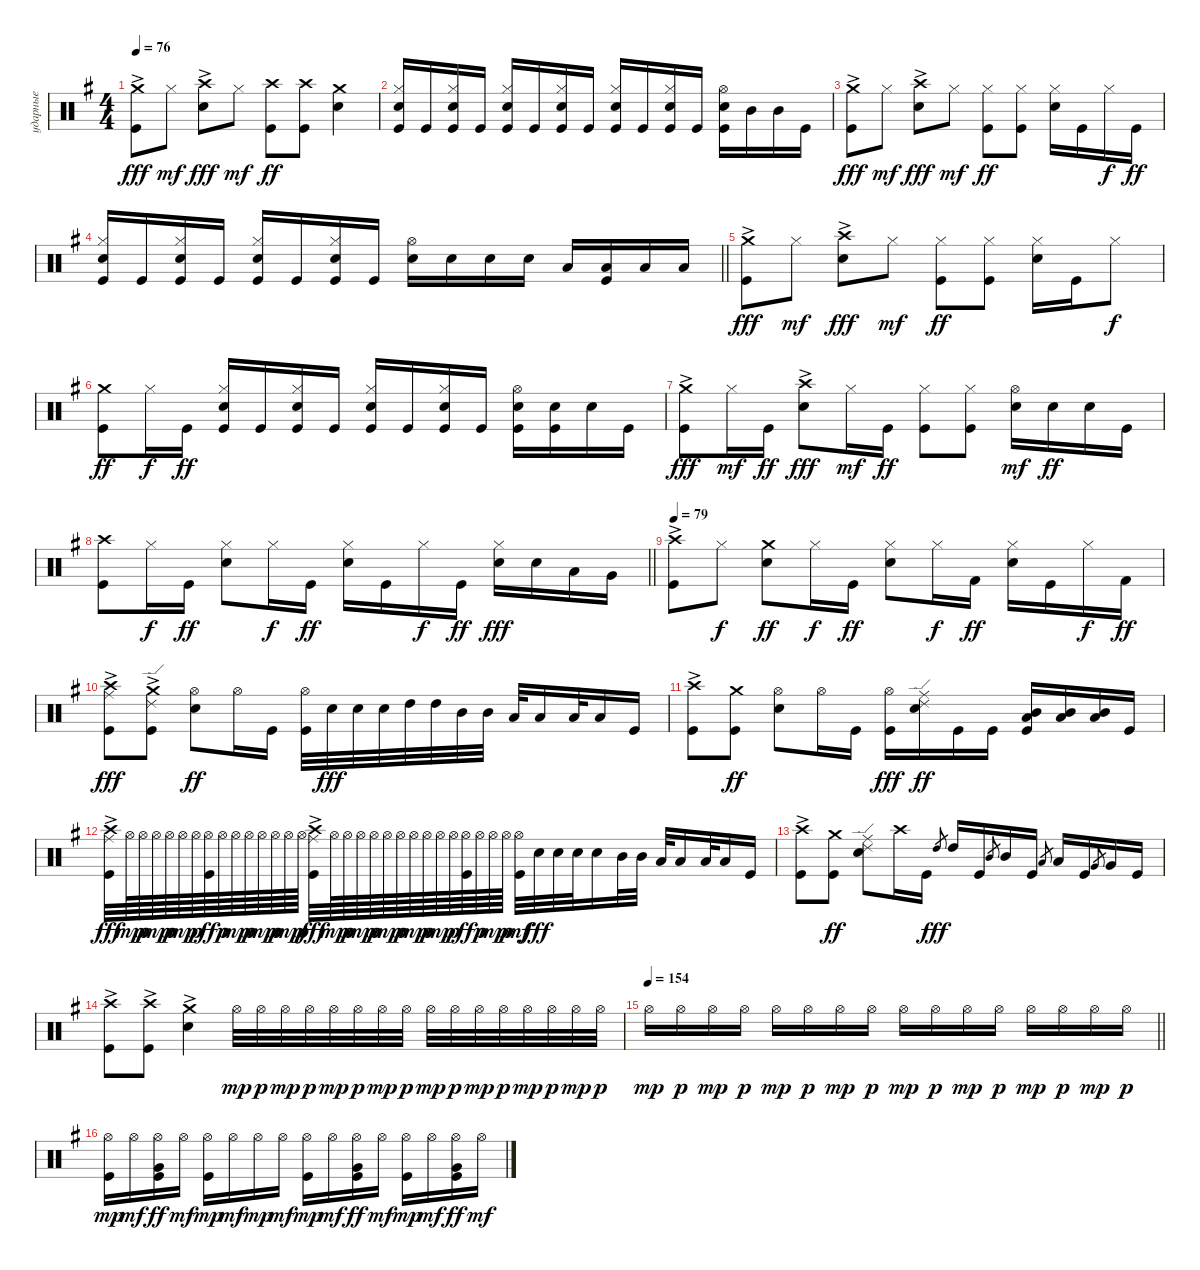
\track ("ударные" "ударные") {instrument percussion}
\staff {score}
\articulation defaults
\ts (4 4)
\tempo 76
\clef neutral
\ks eminor
("Kick (hit)" "Crash medium (hit)"{ac}).8{dy fff} "Hi-Hat (closed)".8{dy mf} ("Snare (hit) 2" "Crash high (hit)"{ac}).8{dy fff} "Hi-Hat (closed)".8{dy mf} ("Kick (hit)" "Crash high (hit)").8{dy ff} ("Kick (hit)" "Crash high (hit)").8 ("Snare (hit) 2" "Crash medium (hit)").4 |
("Snare (hit) 2" "Hi-Hat (closed)" "Kick (hit)").16 "Kick (hit)".16 ("Hi-Hat (closed)" "Kick (hit)" "Snare (hit) 2").16 "Kick (hit)".16 ("Snare (hit) 2" "Hi-Hat (closed)" "Kick (hit)").16 "Kick (hit)".16 ("Hi-Hat (closed)" "Kick (hit)" "Snare (hit) 2").16 "Kick (hit)".16 ("Snare (hit) 2" "Hi-Hat (closed)" "Kick (hit)").16 "Kick (hit)".16 ("Hi-Hat (closed)" "Kick (hit)" "Snare (hit) 2").16 "Kick (hit)".16 ("Snare (hit) 2" "Hi-Hat (open)" "Kick (hit)").16 "Mid Tom (hit)".16 "Mid Tom (hit)".16 "Kick (hit)".16 |
("Kick (hit)" "Crash medium (hit)"{ac}).8{dy fff} "Hi-Hat (closed)".8{dy mf} ("Snare (hit) 2" "Crash high (hit)"{ac}).8{dy fff} "Hi-Hat (closed)".8{dy mf} ("Kick (hit)" "Hi-Hat (closed)").8{dy ff} ("Kick (hit)" "Hi-Hat (closed)").8 ("Snare (hit) 2" "Hi-Hat (closed)").16 "Kick (hit)".16 "Hi-Hat (closed)".16{dy f} "Kick (hit)".16{dy ff} |
\barLineRight lightlight
("Snare (hit) 2" "Hi-Hat (closed)" "Kick (hit)").16 "Kick (hit)".16 ("Hi-Hat (closed)" "Kick (hit)" "Snare (hit) 2").16 "Kick (hit)".16 ("Snare (hit) 2" "Hi-Hat (closed)" "Kick (hit)").16 "Kick (hit)".16 ("Hi-Hat (closed)" "Kick (hit)" "Snare (hit) 2").16 "Kick (hit)".16 ("Hi-Hat (open)" "Snare (hit) 2").16 "Snare (hit) 2".16 "Snare (hit) 2".16 "Snare (hit) 2".16 "Low Tom (hit)".16 ("Kick (hit)" "Low Tom (hit)").16 "Low Tom (hit)".16 "Low Tom (hit)".16 |
\section ("" "")
("Kick (hit)" "Crash medium (hit)"{ac}).8{dy fff} "Hi-Hat (closed)".8{dy mf} ("Snare (hit) 2" "Crash high (hit)"{ac}).8{dy fff} "Hi-Hat (closed)".8{dy mf} ("Kick (hit)" "Hi-Hat (closed)").8{dy ff} ("Kick (hit)" "Hi-Hat (closed)").8 ("Snare (hit) 2" "Hi-Hat (closed)").16 "Kick (hit)".16 "Hi-Hat (closed)".8{dy f} |
("Kick (hit)" "Crash medium (hit)").8{dy ff} "Hi-Hat (closed)".16{dy f} "Kick (hit)".16{dy ff} ("Snare (hit) 2" "Hi-Hat (closed)" "Kick (hit)").16 "Kick (hit)".16 ("Hi-Hat (closed)" "Kick (hit)" "Snare (hit) 2").16 "Kick (hit)".16 ("Snare (hit) 2" "Hi-Hat (closed)" "Kick (hit)").16 "Kick (hit)".16 ("Hi-Hat (closed)" "Kick (hit)" "Snare (hit) 2").16 "Kick (hit)".16 ("Snare (hit) 2" "Hi-Hat (open)" "Kick (hit)").16 ("Snare (hit) 2" "Kick (hit)").16 "Snare (hit) 2".16 "Kick (hit)".16 |
("Kick (hit)" "Crash medium (hit)"{ac}).8{dy fff} "Hi-Hat (closed)".16{dy mf} "Kick (hit)".16{dy ff} ("Snare (hit) 2" "Crash high (hit)"{ac}).8{dy fff} "Hi-Hat (closed)".16{dy mf} "Kick (hit)".16{dy ff} ("Kick (hit)" "Hi-Hat (closed)").8 ("Kick (hit)" "Hi-Hat (closed)").8 ("Snare (hit) 2" "Hi-Hat (open)").16{dy mf} "Snare (hit) 2".16{dy ff} "Snare (hit) 2".16 "Kick (hit)".16 |
\barLineRight lightlight
("Kick (hit)" "Crash high (hit)").8 "Hi-Hat (closed)".16{dy f} "Kick (hit)".16{dy ff} ("Snare (hit) 2" "Hi-Hat (closed)").8 "Hi-Hat (closed)".16{dy f} "Kick (hit)".16{dy ff} ("Snare (hit) 2" "Hi-Hat (closed)").16 "Kick (hit)".16 "Hi-Hat (closed)".16{dy f} "Kick (hit)".16{dy ff} ("Snare (hit) 2" "Hi-Hat (closed)").16{dy fff} "Snare (hit) 2".16 "Low Tom (hit)".16 "Very Low Tom (hit)".16 |
\tempo 79
("Kick (hit)" "Crash high (hit)"{ac}).8 "Hi-Hat (closed)".8{dy f} ("Snare (hit) 2" "Crash medium (hit)").8{dy ff} "Hi-Hat (closed)".16{dy f} "Kick (hit)".16{dy ff} ("Snare (hit) 2" "Hi-Hat (closed)").8 "Hi-Hat (closed)".16{dy f} "Kick (hit) 2".16{dy ff} ("Snare (hit) 2" "Hi-Hat (closed)").16 "Kick (hit)".16 "Hi-Hat (closed)".16{dy f} "Kick (hit) 2".16{dy ff} |
("Kick (hit)"{ac} "Ride (middle)"{ac} "Crash high (hit)"{ac}).8{dy fff} ("Kick (hit)"{ac} "Crash medium (hit)"{ac} "Ride (edge) 2"{ac}).8 ("Snare (hit) 2" "Hi-Hat (open)").8{dy ff} "Hi-Hat (open)".16 "Kick (hit)".16 ("Kick (hit)" "Hi-Hat (open)").32 "Snare (hit) 2".32{dy fff} "Snare (hit) 2".32 "Snare (hit) 2".32 "High Tom (hit)".32 "High Tom (hit)".32 "Mid Tom (hit)".32 "Mid Tom (hit)".32 "Low Tom (hit)".32 "Low Tom (hit)".16 "Low Tom (hit)".32 "Low Tom (hit)".16 "Kick (hit)".16 |
("Kick (hit)" "Crash high (hit)"{ac}).8 ("Kick (hit)" "Crash medium (hit)").8{dy ff} ("Snare (hit) 2" "Hi-Hat (open)").8 "Hi-Hat (open)".16 "Kick (hit)".16 ("Kick (hit)" "Hi-Hat (open)").16{dy fff} ("Snare (hit) 2" "Ride (middle)" "Ride (edge) 2").16{dy ff} "Kick (hit)".16 "Kick (hit)".16 ("Mid Tom (hit)" "Low Tom (hit)" "Kick (hit)").16 ("Mid Tom (hit)" "Low Tom (hit)").16 ("Mid Tom (hit)" "Low Tom (hit)").16 "Kick (hit)".16 |
("Kick (hit)"{ac} "Ride (middle)"{ac} "Crash high (hit)"{ac}).32{dy fff} "Hi-Hat (open)".64{dy mp} "Hi-Hat (open)".64{dy p} "Hi-Hat (open)".64{dy mp} "Hi-Hat (open)".64{dy p} "Hi-Hat (open)".64{dy mp} "Hi-Hat (open)".64{dy p} ("Hi-Hat (open)" "Kick (hit)").64{dy ff} "Hi-Hat (open)".64{dy p} "Hi-Hat (open)".64{dy mp} "Hi-Hat (open)".64{dy p} "Hi-Hat (open)".64{dy mp} "Hi-Hat (open)".64{dy p} "Hi-Hat (open)".64{dy mp} "Hi-Hat (open)".64{dy p} ("Kick (hit)"{ac} "Ride (middle)"{ac} "Crash high (hit)"{ac}).32{dy fff} "Hi-Hat (open)".64{dy mp} "Hi-Hat (open)".64{dy p} "Hi-Hat (open)".64{dy mp} "Hi-Hat (open)".64{dy p} "Hi-Hat (open)".64{dy mp} "Hi-Hat (open)".64{dy p} "Hi-Hat (open)".64{dy mp} "Hi-Hat (open)".64{dy p} "Hi-Hat (open)".64{dy mp} "Hi-Hat (open)".64{dy p} ("Hi-Hat (open)" "Kick (hit)").64{dy ff} "Hi-Hat (open)".64{dy p} "Hi-Hat (open)".64{dy mp} "Hi-Hat (open)".64{dy p} ("Kick (hit)" "Hi-Hat (open)").32{dy mf} "Snare (hit) 2".32{dy fff} "Snare (hit) 2".32 "Snare (hit) 2".32 "Snare (hit) 2".16 "Mid Tom (hit)".32 "Mid Tom (hit)".32 "Low Tom (hit)".32 "Low Tom (hit)".16 "Low Tom (hit)".32 "Low Tom (hit)".16 "Kick (hit)".16 |
("Kick (hit)" "Crash high (hit)"{ac}).8 ("Kick (hit)" "Crash medium (hit)").8{dy ff} ("Snare (hit) 2" "Ride (middle)" "Ride (edge) 2").8 "Crash high (hit)".16 "Kick (hit)".16 "High Tom (hit)".8{gr dy fff} "High Tom (hit)".16 "Kick (hit)".16 "Mid Tom (hit)".8{gr} "Mid Tom (hit)".16 "Kick (hit)".16 "Low Tom (hit)".8{gr} "Low Tom (hit)".16 "Kick (hit)".16 "Very Low Tom (hit)".8{gr} "Very Low Tom (hit)".16 "Kick (hit)".16 |
("Kick (hit)" "Crash high (hit)"{ac}).8 ("Kick (hit)" "Crash high (hit)"{ac}).8 ("Snare (hit) 2" "Crash medium (hit)"{ac}).4 "Hi-Hat (open)".32{dy mp} "Hi-Hat (open)".32{dy p} "Hi-Hat (open)".32{dy mp} "Hi-Hat (open)".32{dy p} "Hi-Hat (open)".32{dy mp} "Hi-Hat (open)".32{dy p} "Hi-Hat (open)".32{dy mp} "Hi-Hat (open)".32{dy p} "Hi-Hat (open)".32{dy mp} "Hi-Hat (open)".32{dy p} "Hi-Hat (open)".32{dy mp} "Hi-Hat (open)".32{dy p} "Hi-Hat (open)".32{dy mp} "Hi-Hat (open)".32{dy p} "Hi-Hat (open)".32{dy mp} "Hi-Hat (open)".32{dy p} |
\tempo 154
\barLineRight lightlight "Hi-Hat (open)".16{dy mp} "Hi-Hat (open)".16{dy p} "Hi-Hat (open)".16{dy mp} "Hi-Hat (open)".16{dy p} "Hi-Hat (open)".16{dy mp} "Hi-Hat (open)".16{dy p} "Hi-Hat (open)".16{dy mp} "Hi-Hat (open)".16{dy p} "Hi-Hat (open)".16{dy mp} "Hi-Hat (open)".16{dy p} "Hi-Hat (open)".16{dy mp} "Hi-Hat (open)".16{dy p} "Hi-Hat (open)".16{dy mp} "Hi-Hat (open)".16{dy p} "Hi-Hat (open)".16{dy mp} "Hi-Hat (open)".16{dy p}
|
\section ("" "")
("Kick (hit)" "Hi-Hat (open)").16{dy mp} "Hi-Hat (open)".16{dy mf} ("Very Low Tom (hit)" "Hi-Hat (open)" "Kick (hit)").16{dy ff} "Hi-Hat (open)".16{dy mf} ("Kick (hit)" "Hi-Hat (open)").16{dy mp} "Hi-Hat (open)".16{dy mf} "Hi-Hat (open)".16{dy mp} "Hi-Hat (open)".16{dy mf} ("Kick (hit)" "Hi-Hat (open)").16{dy mp} "Hi-Hat (open)".16{dy mf} ("Very Low Tom (hit)" "Hi-Hat (open)" "Kick (hit)").16{dy ff} "Hi-Hat (open)".16{dy mf} ("Kick (hit)" "Hi-Hat (open)").16{dy mp} "Hi-Hat (open)".16{dy mf} ("Very Low Tom (hit)" "Hi-Hat (open)" "Kick (hit)").16{dy ff} "Hi-Hat (open)".16{dy mf}
